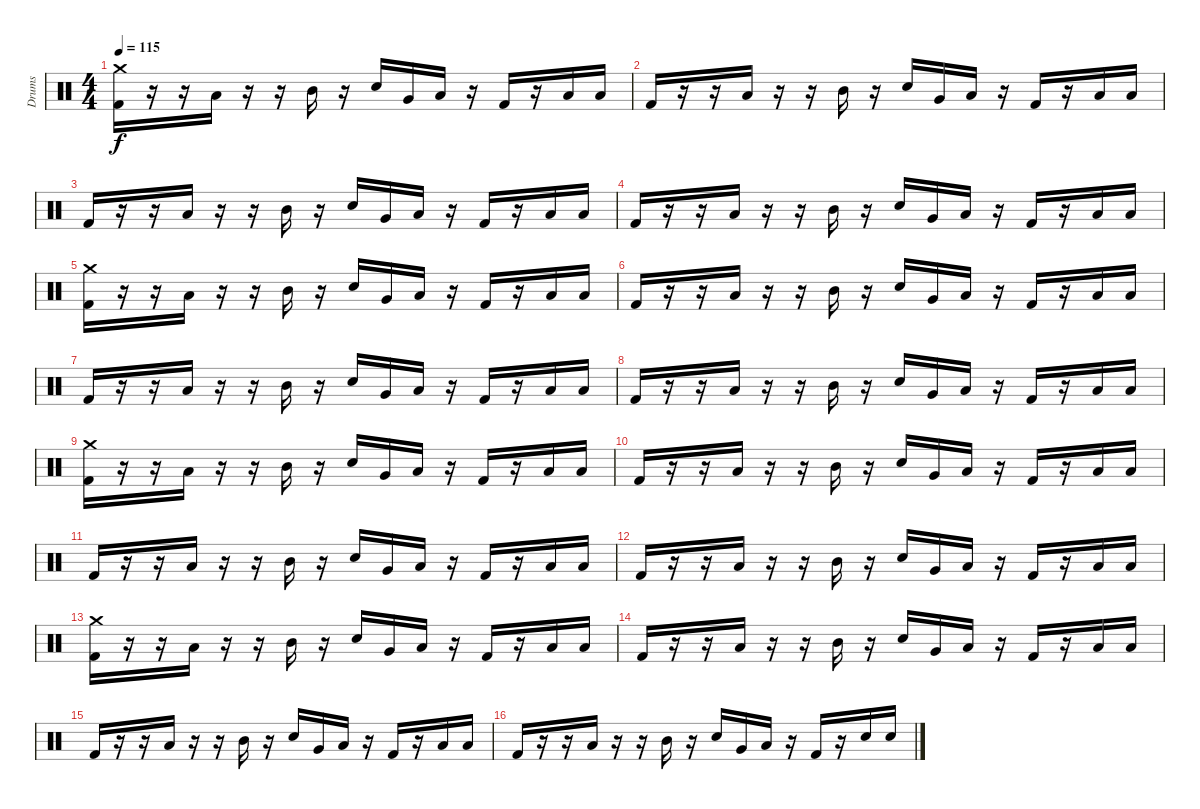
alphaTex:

\track ("Drums" "Drums") {instrument percussion}
\staff {score}
\articulation defaults
\ts (4 4)
\tempo 115
\clef neutral
\ks c
("Crash medium (hit)" "Kick (hit) 2").16{dy f} r.16 r.16 "Low Tom (hit)".16 r.16 r.16 "Mid Tom (hit)".16 r.16 "Electric Snare (hit)".16 "Very Low Tom (hit)".16 "Low Floor Tom (hit)".16 r.16 "Kick (hit) 2".16 r.16 "Low Floor Tom (hit)".16 "Low Tom (hit)".16 |
"Kick (hit) 2".16 r.16 r.16 "Low Tom (hit)".16 r.16 r.16 "Mid Tom (hit)".16 r.16 "Electric Snare (hit)".16 "Very Low Tom (hit)".16 "Low Floor Tom (hit)".16 r.16 "Kick (hit) 2".16 r.16 "Low Floor Tom (hit)".16 "Low Tom (hit)".16 |
"Kick (hit) 2".16 r.16 r.16 "Low Tom (hit)".16 r.16 r.16 "Mid Tom (hit)".16 r.16 "Electric Snare (hit)".16 "Very Low Tom (hit)".16 "Low Floor Tom (hit)".16 r.16 "Kick (hit) 2".16 r.16 "Low Floor Tom (hit)".16 "Low Tom (hit)".16 |
"Kick (hit) 2".16 r.16 r.16 "Low Tom (hit)".16 r.16 r.16 "Mid Tom (hit)".16 r.16 "Electric Snare (hit)".16 "Very Low Tom (hit)".16 "Low Floor Tom (hit)".16 r.16 "Kick (hit) 2".16 r.16 "Low Floor Tom (hit)".16 "Low Tom (hit)".16 |
("Crash medium (hit)" "Kick (hit) 2").16 r.16 r.16 "Low Tom (hit)".16 r.16 r.16 "Mid Tom (hit)".16 r.16 "Electric Snare (hit)".16 "Very Low Tom (hit)".16 "Low Floor Tom (hit)".16 r.16 "Kick (hit) 2".16 r.16 "Low Floor Tom (hit)".16 "Low Tom (hit)".16 |
"Kick (hit) 2".16 r.16 r.16 "Low Tom (hit)".16 r.16 r.16 "Mid Tom (hit)".16 r.16 "Electric Snare (hit)".16 "Very Low Tom (hit)".16 "Low Floor Tom (hit)".16 r.16 "Kick (hit) 2".16 r.16 "Low Floor Tom (hit)".16 "Low Tom (hit)".16 |
"Kick (hit) 2".16 r.16 r.16 "Low Tom (hit)".16 r.16 r.16 "Mid Tom (hit)".16 r.16 "Electric Snare (hit)".16 "Very Low Tom (hit)".16 "Low Floor Tom (hit)".16 r.16 "Kick (hit) 2".16 r.16 "Low Floor Tom (hit)".16 "Low Tom (hit)".16 |
"Kick (hit) 2".16 r.16 r.16 "Low Tom (hit)".16 r.16 r.16 "Mid Tom (hit)".16 r.16 "Electric Snare (hit)".16 "Very Low Tom (hit)".16 "Low Floor Tom (hit)".16 r.16 "Kick (hit) 2".16 r.16 "Low Floor Tom (hit)".16 "Low Tom (hit)".16 |
("Crash medium (hit)" "Kick (hit) 2").16 r.16 r.16 "Low Tom (hit)".16 r.16 r.16 "Mid Tom (hit)".16 r.16 "Electric Snare (hit)".16 "Very Low Tom (hit)".16 "Low Floor Tom (hit)".16 r.16 "Kick (hit) 2".16 r.16 "Low Floor Tom (hit)".16 "Low Tom (hit)".16 |
"Kick (hit) 2".16 r.16 r.16 "Low Tom (hit)".16 r.16 r.16 "Mid Tom (hit)".16 r.16 "Electric Snare (hit)".16 "Very Low Tom (hit)".16 "Low Floor Tom (hit)".16 r.16 "Kick (hit) 2".16 r.16 "Low Floor Tom (hit)".16 "Low Tom (hit)".16 |
"Kick (hit) 2".16 r.16 r.16 "Low Tom (hit)".16 r.16 r.16 "Mid Tom (hit)".16 r.16 "Electric Snare (hit)".16 "Very Low Tom (hit)".16 "Low Floor Tom (hit)".16 r.16 "Kick (hit) 2".16 r.16 "Low Floor Tom (hit)".16 "Low Tom (hit)".16 |
"Kick (hit) 2".16 r.16 r.16 "Low Tom (hit)".16 r.16 r.16 "Mid Tom (hit)".16 r.16 "Electric Snare (hit)".16 "Very Low Tom (hit)".16 "Low Floor Tom (hit)".16 r.16 "Kick (hit) 2".16 r.16 "Low Floor Tom (hit)".16 "Low Tom (hit)".16 |
("Crash medium (hit)" "Kick (hit) 2").16 r.16 r.16 "Low Tom (hit)".16 r.16 r.16 "Mid Tom (hit)".16 r.16 "Electric Snare (hit)".16 "Very Low Tom (hit)".16 "Low Floor Tom (hit)".16 r.16 "Kick (hit) 2".16 r.16 "Low Floor Tom (hit)".16 "Low Tom (hit)".16 |
"Kick (hit) 2".16 r.16 r.16 "Low Tom (hit)".16 r.16 r.16 "Mid Tom (hit)".16 r.16 "Electric Snare (hit)".16 "Very Low Tom (hit)".16 "Low Floor Tom (hit)".16 r.16 "Kick (hit) 2".16 r.16 "Low Floor Tom (hit)".16 "Low Tom (hit)".16 |
"Kick (hit) 2".16 r.16 r.16 "Low Tom (hit)".16 r.16 r.16 "Mid Tom (hit)".16 r.16 "Electric Snare (hit)".16 "Very Low Tom (hit)".16 "Low Floor Tom (hit)".16 r.16 "Kick (hit) 2".16 r.16 "Low Floor Tom (hit)".16 "Low Tom (hit)".16 |
"Kick (hit) 2".16 r.16 r.16 "Low Tom (hit)".16 r.16 r.16 "Mid Tom (hit)".16 r.16 "Electric Snare (hit)".16 "Very Low Tom (hit)".16 "Low Floor Tom (hit)".16 r.16 "Kick (hit) 2".16 r.16 "Electric Snare (hit)".16 "Electric Snare (hit)".16
